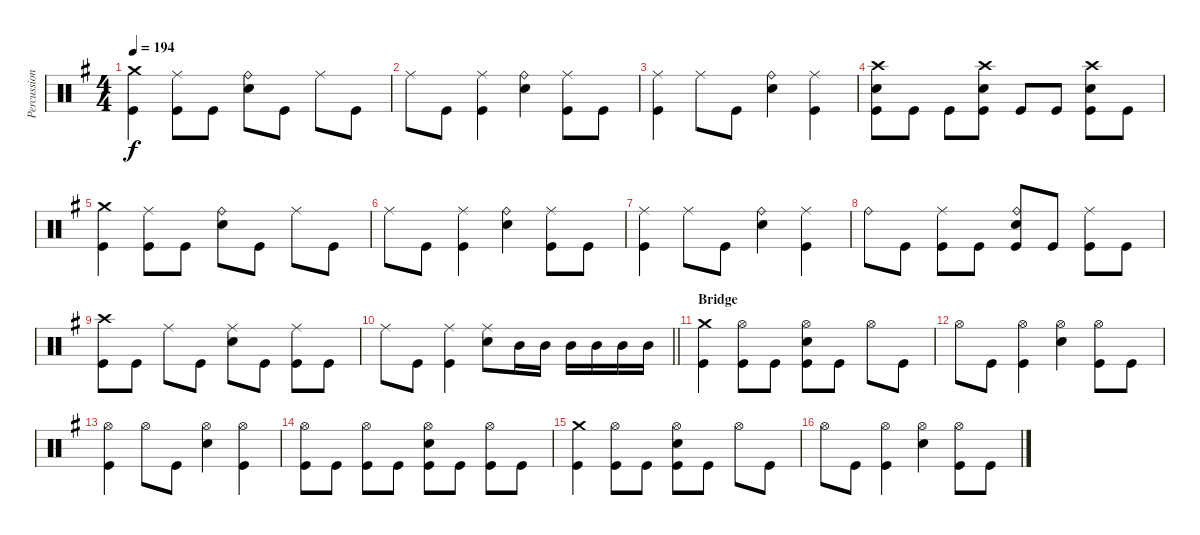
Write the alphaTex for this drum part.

\track ("Percussion" "Percussion") {instrument percussion}
\staff {score}
\articulation defaults
\ts (4 4)
\tempo 194
\clef neutral
\ks g
("Crash medium (hit)" "Kick (hit)").4{dy f} ("Ride (middle)" "Kick (hit)").8 "Kick (hit)".8 ("Ride (bell)" "Electric Snare (hit)").8 "Kick (hit)".8 "Ride (middle)".8 "Kick (hit)".8 |
"Ride (middle)".8 "Kick (hit)".8 ("Ride (middle)" "Kick (hit)").4 ("Ride (bell)" "Electric Snare (hit)").4 ("Ride (middle)" "Kick (hit)").8 "Kick (hit)".8 |
("Ride (middle)" "Kick (hit)").4 "Ride (middle)".8 "Kick (hit)".8 ("Ride (bell)" "Electric Snare (hit)").4 ("Ride (middle)" "Kick (hit)").4 |
("Crash high (hit)" "Electric Snare (hit)" "Kick (hit)").8 "Kick (hit)".8 "Kick (hit)".8 ("Crash high (hit)" "Electric Snare (hit)" "Kick (hit)").8 "Kick (hit)".8 "Kick (hit)".8 ("Crash high (hit)" "Electric Snare (hit)" "Kick (hit)").8 "Kick (hit)".8 |
("Crash medium (hit)" "Kick (hit)").4 ("Ride (middle)" "Kick (hit)").8 "Kick (hit)".8 ("Ride (bell)" "Electric Snare (hit)").8 "Kick (hit)".8 "Ride (middle)".8 "Kick (hit)".8 |
"Ride (middle)".8 "Kick (hit)".8 ("Ride (middle)" "Kick (hit)").4 ("Ride (bell)" "Electric Snare (hit)").4 ("Ride (middle)" "Kick (hit)").8 "Kick (hit)".8 |
("Ride (middle)" "Kick (hit)").4 "Ride (middle)".8 "Kick (hit)".8 ("Ride (bell)" "Electric Snare (hit)").4 ("Ride (middle)" "Kick (hit)").4 |
"Ride (bell)".8 "Kick (hit)".8 ("Ride (middle)" "Kick (hit)").8 "Kick (hit)".8 ("Ride (bell)" "Electric Snare (hit)" "Kick (hit)").8 "Kick (hit)".8 ("Ride (middle)" "Kick (hit)").8 "Kick (hit)".8 |
("Crash high (hit)" "Kick (hit)").8 "Kick (hit)".8 "Ride (middle)".8 "Kick (hit)".8 ("Ride (middle)" "Electric Snare (hit)").8 "Kick (hit)".8 ("Ride (middle)" "Kick (hit)").8 "Kick (hit)".8 |
\barLineRight lightlight "Ride (middle)".8 "Kick (hit)".8
("Ride (middle)" "Kick (hit)").4 ("Ride (middle)" "Electric Snare (hit)").8 "Mid Tom (hit)".16 "Mid Tom (hit)".16 "Mid Tom (hit)".16 "Mid Tom (hit)".16 "Mid Tom (hit)".16 "Mid Tom (hit)".16 |
\section ("" "Bridge")
("Crash medium (hit)" "Kick (hit)").4 ("Hi-Hat (open)" "Kick (hit)").8 "Kick (hit)".8 ("Hi-Hat (open)" "Electric Snare (hit)" "Kick (hit)").8 "Kick (hit)".8 "Hi-Hat (open)".8 "Kick (hit)".8 |
"Hi-Hat (open)".8 "Kick (hit)".8 ("Hi-Hat (open)" "Kick (hit)").4 ("Hi-Hat (open)" "Electric Snare (hit)").4 ("Hi-Hat (open)" "Kick (hit)").8 "Kick (hit)".8 |
("Hi-Hat (open)" "Kick (hit)").4 "Hi-Hat (open)".8 "Kick (hit)".8 ("Hi-Hat (open)" "Electric Snare (hit)").4 ("Hi-Hat (open)" "Kick (hit)").4 |
("Hi-Hat (open)" "Kick (hit)").8 "Kick (hit)".8 ("Hi-Hat (open)" "Kick (hit)").8 "Kick (hit)".8 ("Hi-Hat (open)" "Electric Snare (hit)" "Kick (hit)").8 "Kick (hit)".8 ("Hi-Hat (open)" "Kick (hit)").8 "Kick (hit)".8 |
("Crash medium (hit)" "Kick (hit)").4 ("Hi-Hat (open)" "Kick (hit)").8 "Kick (hit)".8 ("Hi-Hat (open)" "Electric Snare (hit)" "Kick (hit)").8 "Kick (hit)".8 "Hi-Hat (open)".8 "Kick (hit)".8 |
"Hi-Hat (open)".8 "Kick (hit)".8 ("Hi-Hat (open)" "Kick (hit)").4 ("Hi-Hat (open)" "Electric Snare (hit)").4 ("Hi-Hat (open)" "Kick (hit)").8 "Kick (hit)".8
